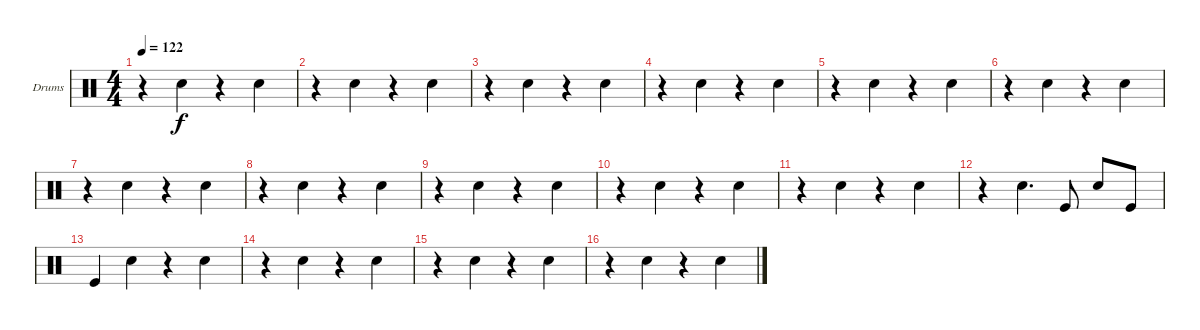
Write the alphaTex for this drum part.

\bracketExtendMode groupsimilarinstruments
\firstSystemTrackNameOrientation horizontal
\otherSystemsTrackNameOrientation horizontal
\track ("Drumkit" "Drums") {instrument percussion}
\staff {score}
\articulation defaults
\ts (4 4)
\tempo 122
\clef neutral
\ks c
r.4{dy f} "Snare (hit) 2".4 r.4 "Snare (hit) 2".4 |
r.4 "Snare (hit) 2".4 r.4 "Snare (hit) 2".4 |
r.4 "Snare (hit) 2".4 r.4 "Snare (hit) 2".4 |
r.4 "Snare (hit) 2".4 r.4 "Snare (hit) 2".4 |
r.4 "Snare (hit) 2".4 r.4 "Snare (hit) 2".4 |
r.4 "Snare (hit) 2".4 r.4 "Snare (hit) 2".4 |
r.4 "Snare (hit) 2".4 r.4 "Snare (hit) 2".4 |
r.4 "Snare (hit) 2".4 r.4 "Snare (hit) 2".4 |
r.4 "Snare (hit) 2".4 r.4 "Snare (hit) 2".4 |
r.4 "Snare (hit) 2".4 r.4 "Snare (hit) 2".4 |
r.4 "Snare (hit) 2".4 r.4 "Snare (hit) 2".4 |
r.4 "Snare (hit) 2".4{d} "Kick (hit)".8 "Snare (hit) 2".8 "Kick (hit)".8 |
"Kick (hit)".4 "Snare (hit) 2".4 r.4 "Snare (hit) 2".4 |
r.4 "Snare (hit) 2".4 r.4 "Snare (hit) 2".4 |
r.4 "Snare (hit) 2".4 r.4 "Snare (hit) 2".4 |
r.4 "Snare (hit) 2".4 r.4 "Snare (hit) 2".4
